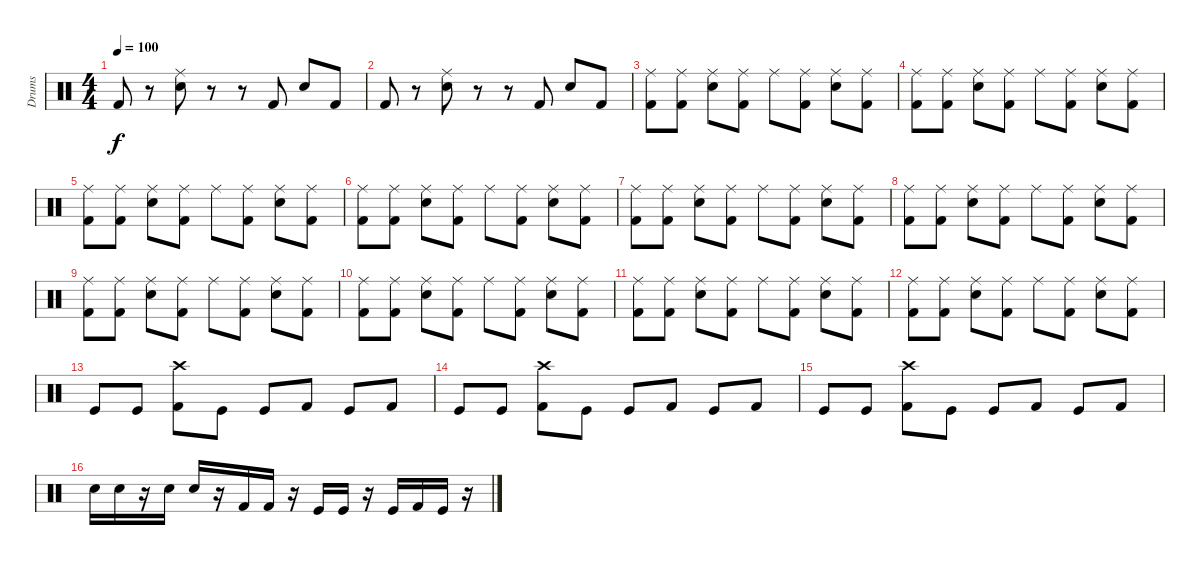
\track ("Drums" "Drums") {instrument percussion}
\staff {score}
\articulation defaults
\ts (4 4)
\tempo 100
\clef neutral
\ks c "Kick (hit) 2".8{dy f}
r.8 ("Ride (middle)" "Snare (hit) 2").8 r.8 r.8 "Kick (hit) 2".8 "Snare (hit) 2".8 "Kick (hit) 2".8 |
"Kick (hit) 2".8 r.8 ("Ride (middle)" "Snare (hit) 2").8 r.8 r.8 "Kick (hit) 2".8 "Snare (hit) 2".8 "Kick (hit) 2".8 |
("Ride (middle)" "Kick (hit) 2").8 ("Ride (middle)" "Kick (hit) 2").8 ("Ride (middle)" "Snare (hit) 2").8 ("Ride (middle)" "Kick (hit) 2").8 "Ride (middle)".8 ("Ride (middle)" "Kick (hit) 2").8 ("Ride (middle)" "Snare (hit) 2").8 ("Ride (middle)" "Kick (hit) 2").8 |
("Ride (middle)" "Kick (hit) 2").8 ("Ride (middle)" "Kick (hit) 2").8 ("Ride (middle)" "Snare (hit) 2").8 ("Ride (middle)" "Kick (hit) 2").8 "Ride (middle)".8 ("Ride (middle)" "Kick (hit) 2").8 ("Ride (middle)" "Snare (hit) 2").8 ("Ride (middle)" "Kick (hit) 2").8 |
("Ride (middle)" "Kick (hit) 2").8 ("Ride (middle)" "Kick (hit) 2").8 ("Ride (middle)" "Snare (hit) 2").8 ("Ride (middle)" "Kick (hit) 2").8 "Ride (middle)".8 ("Ride (middle)" "Kick (hit) 2").8 ("Ride (middle)" "Snare (hit) 2").8 ("Ride (middle)" "Kick (hit) 2").8 |
("Ride (middle)" "Kick (hit) 2").8 ("Ride (middle)" "Kick (hit) 2").8 ("Ride (middle)" "Snare (hit) 2").8 ("Ride (middle)" "Kick (hit) 2").8 "Ride (middle)".8 ("Ride (middle)" "Kick (hit) 2").8 ("Ride (middle)" "Snare (hit) 2").8 ("Ride (middle)" "Kick (hit) 2").8 |
("Ride (middle)" "Kick (hit) 2").8 ("Ride (middle)" "Kick (hit) 2").8 ("Ride (middle)" "Snare (hit) 2").8 ("Ride (middle)" "Kick (hit) 2").8 "Ride (middle)".8 ("Ride (middle)" "Kick (hit) 2").8 ("Ride (middle)" "Snare (hit) 2").8 ("Ride (middle)" "Kick (hit) 2").8 |
("Ride (middle)" "Kick (hit) 2").8 ("Ride (middle)" "Kick (hit) 2").8 ("Ride (middle)" "Snare (hit) 2").8 ("Ride (middle)" "Kick (hit) 2").8 "Ride (middle)".8 ("Ride (middle)" "Kick (hit) 2").8 ("Ride (middle)" "Snare (hit) 2").8 ("Ride (middle)" "Kick (hit) 2").8 |
("Ride (middle)" "Kick (hit) 2").8 ("Ride (middle)" "Kick (hit) 2").8 ("Ride (middle)" "Snare (hit) 2").8 ("Ride (middle)" "Kick (hit) 2").8 "Ride (middle)".8 ("Ride (middle)" "Kick (hit) 2").8 ("Ride (middle)" "Snare (hit) 2").8 ("Ride (middle)" "Kick (hit) 2").8 |
("Ride (middle)" "Kick (hit) 2").8 ("Ride (middle)" "Kick (hit) 2").8 ("Ride (middle)" "Snare (hit) 2").8 ("Ride (middle)" "Kick (hit) 2").8 "Ride (middle)".8 ("Ride (middle)" "Kick (hit) 2").8 ("Ride (middle)" "Snare (hit) 2").8 ("Ride (middle)" "Kick (hit) 2").8 |
("Ride (middle)" "Kick (hit) 2").8 ("Ride (middle)" "Kick (hit) 2").8 ("Ride (middle)" "Snare (hit) 2").8 ("Ride (middle)" "Kick (hit) 2").8 "Ride (middle)".8 ("Ride (middle)" "Kick (hit) 2").8 ("Ride (middle)" "Snare (hit) 2").8 ("Ride (middle)" "Kick (hit) 2").8 |
("Ride (middle)" "Kick (hit) 2").8 ("Ride (middle)" "Kick (hit) 2").8 ("Ride (middle)" "Snare (hit) 2").8 ("Ride (middle)" "Kick (hit) 2").8 "Ride (middle)".8 ("Ride (middle)" "Kick (hit) 2").8 ("Ride (middle)" "Snare (hit) 2").8 ("Ride (middle)" "Kick (hit) 2").8 |
"Kick (hit)".8 "Kick (hit)".8 ("Crash high (hit)" "Kick (hit) 2").8 "Kick (hit)".8 "Kick (hit)".8 "Kick (hit) 2".8 "Kick (hit)".8 "Kick (hit) 2".8 |
"Kick (hit)".8 "Kick (hit)".8 ("Crash high (hit)" "Kick (hit) 2").8 "Kick (hit)".8 "Kick (hit)".8 "Kick (hit) 2".8 "Kick (hit)".8 "Kick (hit) 2".8 |
"Kick (hit)".8 "Kick (hit)".8 ("Crash high (hit)" "Kick (hit) 2").8 "Kick (hit)".8 "Kick (hit)".8 "Kick (hit) 2".8 "Kick (hit)".8 "Kick (hit) 2".8 |
"Electric Snare (hit)".16 "Electric Snare (hit)".16 r.16 "Snare (hit) 2".16 "Snare (hit) 2".16 r.16 "Kick (hit) 2".16 "Kick (hit) 2".16 r.16 "Kick (hit)".16 "Kick (hit)".16 r.16 "Kick (hit)".16 "Kick (hit) 2".16 "Kick (hit)".16 r.16
